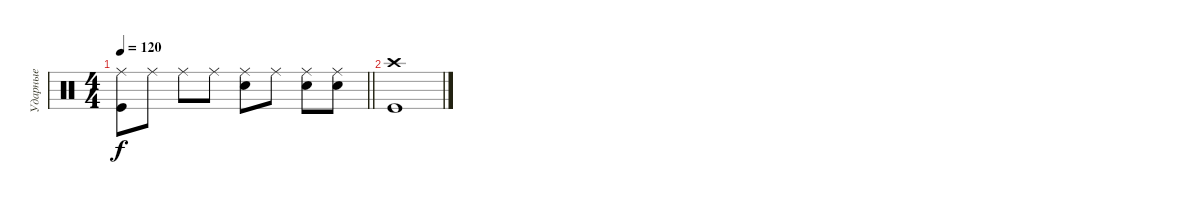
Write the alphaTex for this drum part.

\track ("Ударные" "Ударные") {instrument percussion}
\staff {score}
\articulation defaults
\ts (4 4)
\tempo 120
\clef neutral
\barLineRight lightlight
\ks c
("Ride (middle)" "Kick (hit)").8{dy f} "Ride (middle)".8 "Ride (middle)".8 "Ride (middle)".8 ("Ride (middle)" "Electric Snare (hit)").8 "Ride (middle)".8 ("Ride (middle)" "Electric Snare (hit)").8 ("Ride (middle)" "Electric Snare (hit)").8 |
("Crash high (hit)" "Kick (hit)").1
